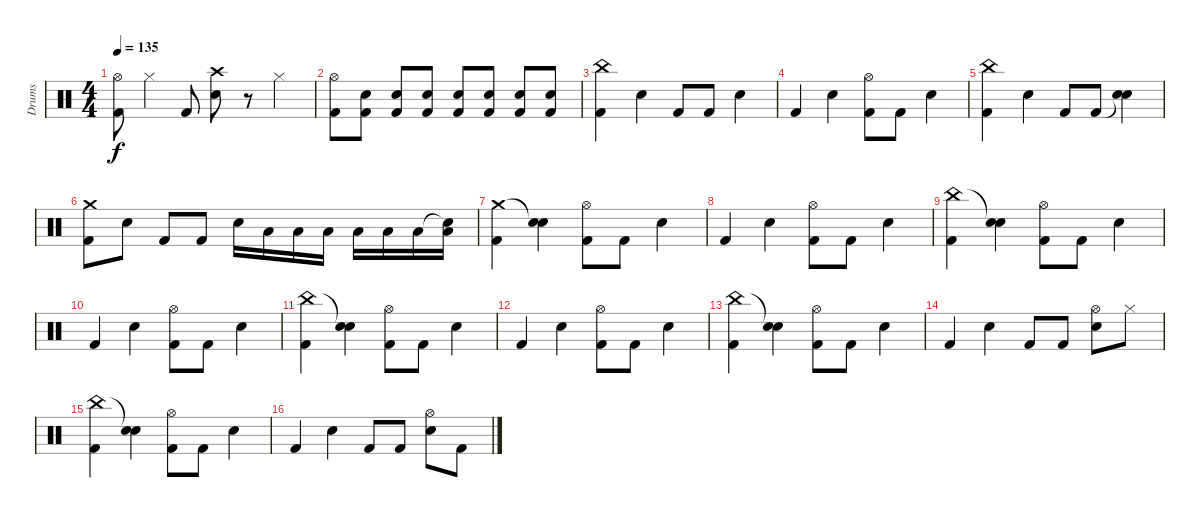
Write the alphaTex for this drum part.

\track ("Drums" "Drums") {instrument percussion}
\staff {score}
\articulation defaults
\ts (4 4)
\tempo 135
\clef neutral
\ks c
("Hi-Hat (open)" "Kick (hit) 2").8{dy f} "Hi-Hat (closed)".4 "Kick (hit) 2".8 ("Crash high (hit)" "Electric Snare (hit)").8 r.8 "Hi-Hat (closed)".4 |
("Hi-Hat (open)" "Kick (hit) 2").8 ("Electric Snare (hit)" "Kick (hit) 2").8 ("Electric Snare (hit)" "Kick (hit) 2").8 ("Electric Snare (hit)" "Kick (hit) 2").8 ("Electric Snare (hit)" "Kick (hit) 2").8 ("Electric Snare (hit)" "Kick (hit) 2").8 ("Electric Snare (hit)" "Kick (hit) 2").8 ("Electric Snare (hit)" "Kick (hit) 2").8 |
("China (hit)" "Kick (hit) 2").4 "Electric Snare (hit)".4 "Kick (hit) 2".8 "Kick (hit) 2".8 "Electric Snare (hit)".4 |
"Kick (hit) 2".4 "Electric Snare (hit)".4 ("Hi-Hat (open)" "Kick (hit) 2").8 "Kick (hit) 2".8 "Electric Snare (hit)".4 |
("China (hit)" "Kick (hit) 2").4 "Electric Snare (hit)".4 "Kick (hit) 2".8 "Kick (hit) 2".8 ("Snare (hit)"{t} "Electric Snare (hit)").4 |
("Crash medium (hit)" "Kick (hit) 2").8 "Electric Snare (hit)".8 "Kick (hit) 2".8 "Kick (hit) 2".8 "Electric Snare (hit)".16 "Low Tom (hit)".16 "Low Tom (hit)".16 "Low Tom (hit)".16 "Low Tom (hit)".16 "Low Tom (hit)".16 "Low Tom (hit)".16 ("Snare (hit)"{t} "Low Tom (hit)").16 |
("Crash medium (hit)" "Kick (hit) 2").4 ("Snare (hit)"{t} "Electric Snare (hit)").4 ("Hi-Hat (open)" "Kick (hit) 2").8 "Kick (hit) 2".8 "Electric Snare (hit)".4 |
"Kick (hit) 2".4 "Electric Snare (hit)".4 ("Hi-Hat (open)" "Kick (hit) 2").8 "Kick (hit) 2".8 "Electric Snare (hit)".4 |
("China (hit)" "Kick (hit) 2").4 ("Snare (hit)"{t} "Electric Snare (hit)").4 ("Hi-Hat (open)" "Kick (hit) 2").8 "Kick (hit) 2".8 "Electric Snare (hit)".4 |
"Kick (hit) 2".4 "Electric Snare (hit)".4 ("Hi-Hat (open)" "Kick (hit) 2").8 "Kick (hit) 2".8 "Electric Snare (hit)".4 |
("China (hit)" "Kick (hit) 2").4 ("Snare (hit)"{t} "Electric Snare (hit)").4 ("Hi-Hat (open)" "Kick (hit) 2").8 "Kick (hit) 2".8 "Electric Snare (hit)".4 |
"Kick (hit) 2".4 "Electric Snare (hit)".4 ("Hi-Hat (open)" "Kick (hit) 2").8 "Kick (hit) 2".8 "Electric Snare (hit)".4 |
("China (hit)" "Kick (hit) 2").4 ("Snare (hit)"{t} "Electric Snare (hit)").4 ("Hi-Hat (open)" "Kick (hit) 2").8 "Kick (hit) 2".8 "Electric Snare (hit)".4 |
"Kick (hit) 2".4 "Electric Snare (hit)".4 "Kick (hit) 2".8 "Kick (hit) 2".8 ("Electric Snare (hit)" "Hi-Hat (open)").8 "Hi-Hat (closed)".8 |
("China (hit)" "Kick (hit) 2").4 ("Snare (hit)"{t} "Electric Snare (hit)").4 ("Hi-Hat (open)" "Kick (hit) 2").8 "Kick (hit) 2".8 "Electric Snare (hit)".4 |
"Kick (hit) 2".4 "Electric Snare (hit)".4 "Kick (hit) 2".8 "Kick (hit) 2".8 ("Electric Snare (hit)" "Hi-Hat (open)").8 "Kick (hit) 2".8
